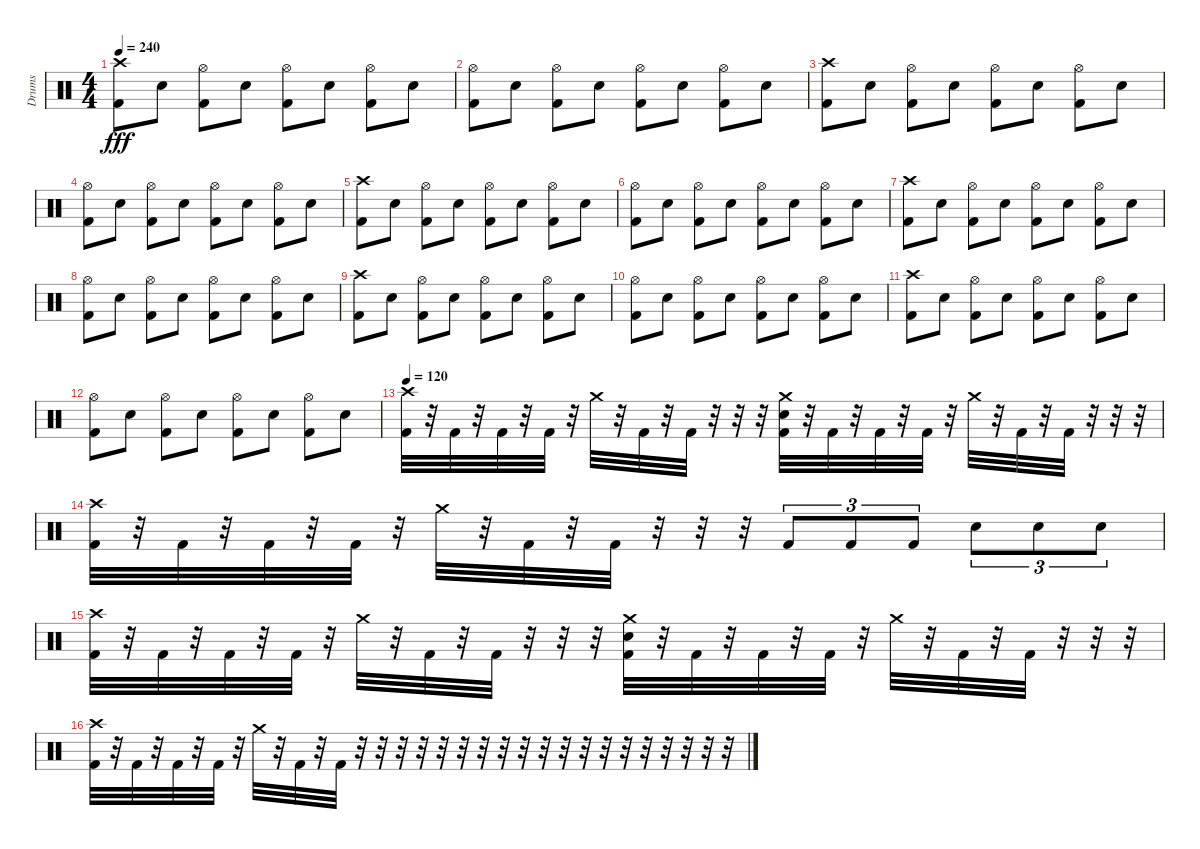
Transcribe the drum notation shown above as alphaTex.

\track ("Drums" "Drums") {instrument percussion}
\staff {score}
\articulation defaults
\ts (4 4)
\tempo 240
\clef neutral
\ks c
("Crash high (hit)" "Kick (hit) 2").8{dy fff} "Electric Snare (hit)".8 ("Hi-Hat (open)" "Kick (hit) 2").8 "Electric Snare (hit)".8 ("Hi-Hat (open)" "Kick (hit) 2").8 "Electric Snare (hit)".8 ("Hi-Hat (open)" "Kick (hit) 2").8 "Electric Snare (hit)".8 |
("Hi-Hat (open)" "Kick (hit) 2").8 "Electric Snare (hit)".8 ("Hi-Hat (open)" "Kick (hit) 2").8 "Electric Snare (hit)".8 ("Hi-Hat (open)" "Kick (hit) 2").8 "Electric Snare (hit)".8 ("Hi-Hat (open)" "Kick (hit) 2").8 "Electric Snare (hit)".8 |
("Crash high (hit)" "Kick (hit) 2").8 "Electric Snare (hit)".8 ("Hi-Hat (open)" "Kick (hit) 2").8 "Electric Snare (hit)".8 ("Hi-Hat (open)" "Kick (hit) 2").8 "Electric Snare (hit)".8 ("Hi-Hat (open)" "Kick (hit) 2").8 "Electric Snare (hit)".8 |
("Hi-Hat (open)" "Kick (hit) 2").8 "Electric Snare (hit)".8 ("Hi-Hat (open)" "Kick (hit) 2").8 "Electric Snare (hit)".8 ("Hi-Hat (open)" "Kick (hit) 2").8 "Electric Snare (hit)".8 ("Hi-Hat (open)" "Kick (hit) 2").8 "Electric Snare (hit)".8 |
("Crash high (hit)" "Kick (hit) 2").8 "Electric Snare (hit)".8 ("Hi-Hat (open)" "Kick (hit) 2").8 "Electric Snare (hit)".8 ("Hi-Hat (open)" "Kick (hit) 2").8 "Electric Snare (hit)".8 ("Hi-Hat (open)" "Kick (hit) 2").8 "Electric Snare (hit)".8 |
("Hi-Hat (open)" "Kick (hit) 2").8 "Electric Snare (hit)".8 ("Hi-Hat (open)" "Kick (hit) 2").8 "Electric Snare (hit)".8 ("Hi-Hat (open)" "Kick (hit) 2").8 "Electric Snare (hit)".8 ("Hi-Hat (open)" "Kick (hit) 2").8 "Electric Snare (hit)".8 |
("Crash high (hit)" "Kick (hit) 2").8 "Electric Snare (hit)".8 ("Hi-Hat (open)" "Kick (hit) 2").8 "Electric Snare (hit)".8 ("Hi-Hat (open)" "Kick (hit) 2").8 "Electric Snare (hit)".8 ("Hi-Hat (open)" "Kick (hit) 2").8 "Electric Snare (hit)".8 |
("Hi-Hat (open)" "Kick (hit) 2").8 "Electric Snare (hit)".8 ("Hi-Hat (open)" "Kick (hit) 2").8 "Electric Snare (hit)".8 ("Hi-Hat (open)" "Kick (hit) 2").8 "Electric Snare (hit)".8 ("Hi-Hat (open)" "Kick (hit) 2").8 "Electric Snare (hit)".8 |
("Crash high (hit)" "Kick (hit) 2").8 "Electric Snare (hit)".8 ("Hi-Hat (open)" "Kick (hit) 2").8 "Electric Snare (hit)".8 ("Hi-Hat (open)" "Kick (hit) 2").8 "Electric Snare (hit)".8 ("Hi-Hat (open)" "Kick (hit) 2").8 "Electric Snare (hit)".8 |
("Hi-Hat (open)" "Kick (hit) 2").8 "Electric Snare (hit)".8 ("Hi-Hat (open)" "Kick (hit) 2").8 "Electric Snare (hit)".8 ("Hi-Hat (open)" "Kick (hit) 2").8 "Electric Snare (hit)".8 ("Hi-Hat (open)" "Kick (hit) 2").8 "Electric Snare (hit)".8 |
("Crash high (hit)" "Kick (hit) 2").8 "Electric Snare (hit)".8 ("Hi-Hat (open)" "Kick (hit) 2").8 "Electric Snare (hit)".8 ("Hi-Hat (open)" "Kick (hit) 2").8 "Electric Snare (hit)".8 ("Hi-Hat (open)" "Kick (hit) 2").8 "Electric Snare (hit)".8 |
("Hi-Hat (open)" "Kick (hit) 2").8 "Electric Snare (hit)".8 ("Hi-Hat (open)" "Kick (hit) 2").8 "Electric Snare (hit)".8 ("Hi-Hat (open)" "Kick (hit) 2").8 "Electric Snare (hit)".8 ("Hi-Hat (open)" "Kick (hit) 2").8 "Electric Snare (hit)".8 |
\tempo 120
("Crash high (hit)" "Kick (hit) 2").32 r.32 "Kick (hit) 2".32 r.32 "Kick (hit) 2".32 r.32 "Kick (hit) 2".32 r.32 "Crash medium (hit)".32 r.32 "Kick (hit) 2".32 r.32 "Kick (hit) 2".32 r.32 r.32 r.32 ("Crash medium (hit)" "Electric Snare (hit)" "Kick (hit) 2").32 r.32 "Kick (hit) 2".32 r.32 "Kick (hit) 2".32 r.32 "Kick (hit) 2".32 r.32 "Crash medium (hit)".32 r.32 "Kick (hit) 2".32 r.32 "Kick (hit) 2".32 r.32 r.32 r.32 |
("Crash high (hit)" "Kick (hit) 2").32 r.32 "Kick (hit) 2".32 r.32 "Kick (hit) 2".32 r.32 "Kick (hit) 2".32 r.32 "Crash medium (hit)".32 r.32 "Kick (hit) 2".32 r.32 "Kick (hit) 2".32 r.32 r.32 r.32 "Kick (hit) 2".8{tu (3 2)} "Kick (hit) 2".8{tu (3 2)} "Kick (hit) 2".8{tu (3 2)} "Electric Snare (hit)".8{tu (3 2)} "Electric Snare (hit)".8{tu (3 2)} "Electric Snare (hit)".8{tu (3 2)} |
("Crash high (hit)" "Kick (hit) 2").32 r.32 "Kick (hit) 2".32 r.32 "Kick (hit) 2".32 r.32 "Kick (hit) 2".32 r.32 "Crash medium (hit)".32 r.32 "Kick (hit) 2".32 r.32 "Kick (hit) 2".32 r.32 r.32 r.32 ("Crash medium (hit)" "Electric Snare (hit)" "Kick (hit) 2").32 r.32 "Kick (hit) 2".32 r.32 "Kick (hit) 2".32 r.32 "Kick (hit) 2".32 r.32 "Crash medium (hit)".32 r.32 "Kick (hit) 2".32 r.32 "Kick (hit) 2".32 r.32 r.32 r.32 |
("Crash high (hit)" "Kick (hit) 2").32 r.32 "Kick (hit) 2".32 r.32 "Kick (hit) 2".32 r.32 "Kick (hit) 2".32 r.32 "Crash medium (hit)".32 r.32 "Kick (hit) 2".32 r.32 "Kick (hit) 2".32 r.32 r.32 r.32 r.32 r.32 r.32 r.32 r.32 r.32 r.32 r.32 r.32 r.32 r.32 r.32 r.32 r.32 r.32 r.32
